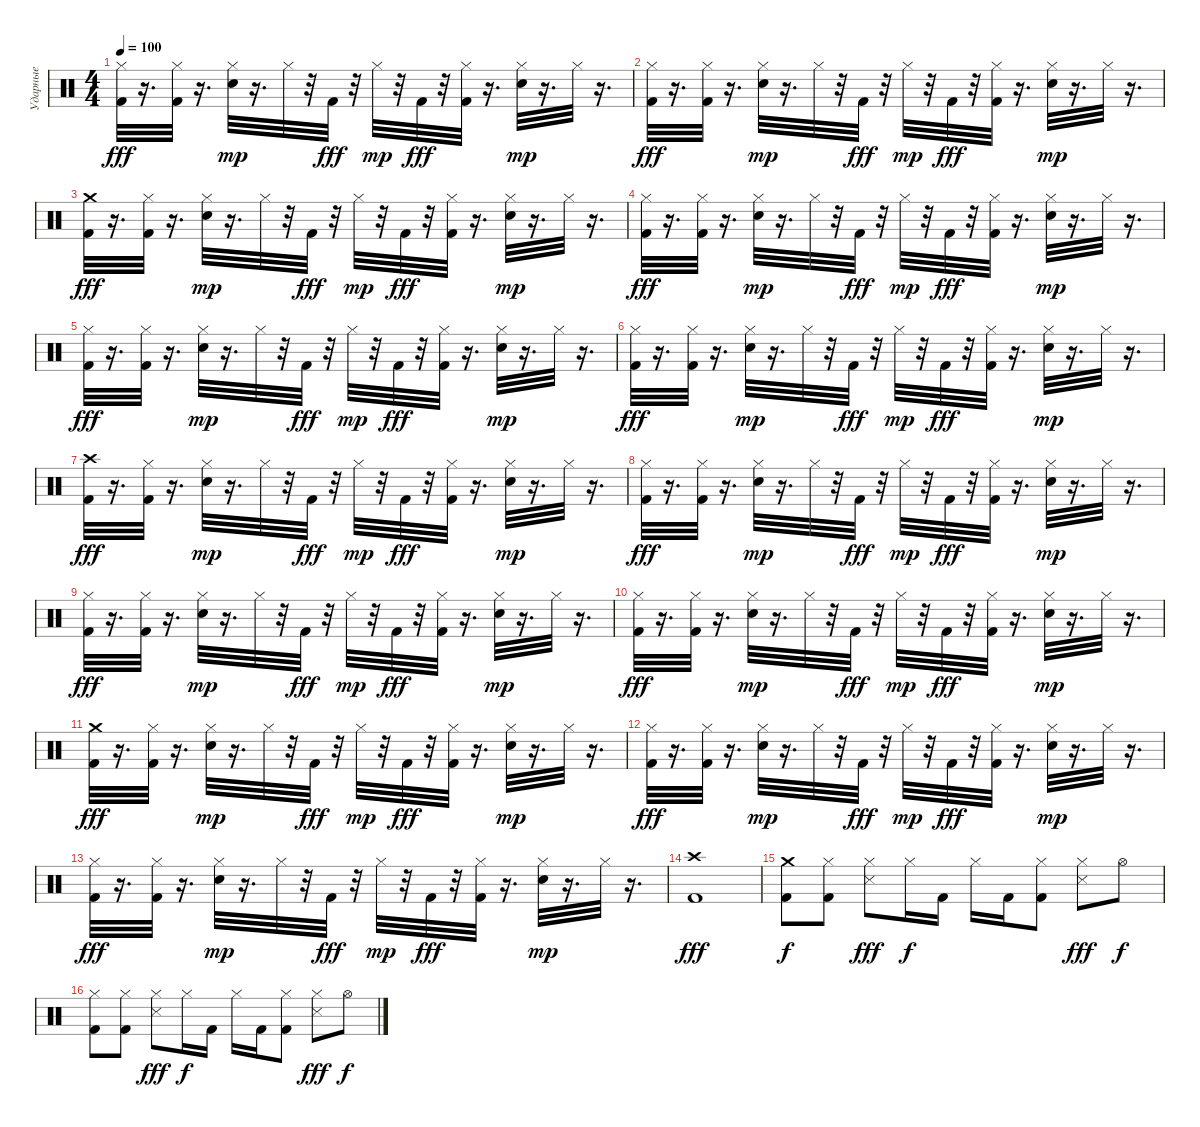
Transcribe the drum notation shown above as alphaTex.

\track ("Ударные" "Ударные") {instrument percussion}
\staff {score}
\articulation defaults
\ts (4 4)
\tempo 100
\clef neutral
\ks c
("Hi-Hat (closed)" "Kick (hit) 2").32{dy fff} r.16{d} ("Hi-Hat (closed)" "Kick (hit) 2").32 r.16{d} ("Hi-Hat (closed)" "Electric Snare (hit)").32{dy mp} r.16{d} "Hi-Hat (closed)".32 r.32 "Kick (hit) 2".32{dy fff} r.32 "Hi-Hat (closed)".32{dy mp} r.32 "Kick (hit) 2".32{dy fff} r.32 ("Hi-Hat (closed)" "Kick (hit) 2").32 r.16{d} ("Hi-Hat (closed)" "Electric Snare (hit)").32{dy mp} r.16{d} "Hi-Hat (closed)".32 r.16{d} |
("Hi-Hat (closed)" "Kick (hit) 2").32{dy fff} r.16{d} ("Hi-Hat (closed)" "Kick (hit) 2").32 r.16{d} ("Hi-Hat (closed)" "Electric Snare (hit)").32{dy mp} r.16{d} "Hi-Hat (closed)".32 r.32 "Kick (hit) 2".32{dy fff} r.32 "Hi-Hat (closed)".32{dy mp} r.32 "Kick (hit) 2".32{dy fff} r.32 ("Hi-Hat (closed)" "Kick (hit) 2").32 r.16{d} ("Hi-Hat (closed)" "Electric Snare (hit)").32{dy mp} r.16{d} "Hi-Hat (closed)".32 r.16{d} |
("Crash medium (hit)" "Kick (hit) 2").32{dy fff} r.16{d} ("Hi-Hat (closed)" "Kick (hit) 2").32 r.16{d} ("Hi-Hat (closed)" "Electric Snare (hit)").32{dy mp} r.16{d} "Hi-Hat (closed)".32 r.32 "Kick (hit) 2".32{dy fff} r.32 "Hi-Hat (closed)".32{dy mp} r.32 "Kick (hit) 2".32{dy fff} r.32 ("Hi-Hat (closed)" "Kick (hit) 2").32 r.16{d} ("Hi-Hat (closed)" "Electric Snare (hit)").32{dy mp} r.16{d} "Hi-Hat (closed)".32 r.16{d} |
("Hi-Hat (closed)" "Kick (hit) 2").32{dy fff} r.16{d} ("Hi-Hat (closed)" "Kick (hit) 2").32 r.16{d} ("Hi-Hat (closed)" "Electric Snare (hit)").32{dy mp} r.16{d} "Hi-Hat (closed)".32 r.32 "Kick (hit) 2".32{dy fff} r.32 "Hi-Hat (closed)".32{dy mp} r.32 "Kick (hit) 2".32{dy fff} r.32 ("Hi-Hat (closed)" "Kick (hit) 2").32 r.16{d} ("Hi-Hat (closed)" "Electric Snare (hit)").32{dy mp} r.16{d} "Hi-Hat (closed)".32 r.16{d} |
("Hi-Hat (closed)" "Kick (hit) 2").32{dy fff} r.16{d} ("Hi-Hat (closed)" "Kick (hit) 2").32 r.16{d} ("Hi-Hat (closed)" "Electric Snare (hit)").32{dy mp} r.16{d} "Hi-Hat (closed)".32 r.32 "Kick (hit) 2".32{dy fff} r.32 "Hi-Hat (closed)".32{dy mp} r.32 "Kick (hit) 2".32{dy fff} r.32 ("Hi-Hat (closed)" "Kick (hit) 2").32 r.16{d} ("Hi-Hat (closed)" "Electric Snare (hit)").32{dy mp} r.16{d} "Hi-Hat (closed)".32 r.16{d} |
("Hi-Hat (closed)" "Kick (hit) 2").32{dy fff} r.16{d} ("Hi-Hat (closed)" "Kick (hit) 2").32 r.16{d} ("Hi-Hat (closed)" "Electric Snare (hit)").32{dy mp} r.16{d} "Hi-Hat (closed)".32 r.32 "Kick (hit) 2".32{dy fff} r.32 "Hi-Hat (closed)".32{dy mp} r.32 "Kick (hit) 2".32{dy fff} r.32 ("Hi-Hat (closed)" "Kick (hit) 2").32 r.16{d} ("Hi-Hat (closed)" "Electric Snare (hit)").32{dy mp} r.16{d} "Hi-Hat (closed)".32 r.16{d} |
("Crash high (hit)" "Kick (hit) 2").32{dy fff} r.16{d} ("Hi-Hat (closed)" "Kick (hit) 2").32 r.16{d} ("Hi-Hat (closed)" "Electric Snare (hit)").32{dy mp} r.16{d} "Hi-Hat (closed)".32 r.32 "Kick (hit) 2".32{dy fff} r.32 "Hi-Hat (closed)".32{dy mp} r.32 "Kick (hit) 2".32{dy fff} r.32 ("Hi-Hat (closed)" "Kick (hit) 2").32 r.16{d} ("Hi-Hat (closed)" "Electric Snare (hit)").32{dy mp} r.16{d} "Hi-Hat (closed)".32 r.16{d} |
("Hi-Hat (closed)" "Kick (hit) 2").32{dy fff} r.16{d} ("Hi-Hat (closed)" "Kick (hit) 2").32 r.16{d} ("Hi-Hat (closed)" "Electric Snare (hit)").32{dy mp} r.16{d} "Hi-Hat (closed)".32 r.32 "Kick (hit) 2".32{dy fff} r.32 "Hi-Hat (closed)".32{dy mp} r.32 "Kick (hit) 2".32{dy fff} r.32 ("Hi-Hat (closed)" "Kick (hit) 2").32 r.16{d} ("Hi-Hat (closed)" "Electric Snare (hit)").32{dy mp} r.16{d} "Hi-Hat (closed)".32 r.16{d} |
("Hi-Hat (closed)" "Kick (hit) 2").32{dy fff} r.16{d} ("Hi-Hat (closed)" "Kick (hit) 2").32 r.16{d} ("Hi-Hat (closed)" "Electric Snare (hit)").32{dy mp} r.16{d} "Hi-Hat (closed)".32 r.32 "Kick (hit) 2".32{dy fff} r.32 "Hi-Hat (closed)".32{dy mp} r.32 "Kick (hit) 2".32{dy fff} r.32 ("Hi-Hat (closed)" "Kick (hit) 2").32 r.16{d} ("Hi-Hat (closed)" "Electric Snare (hit)").32{dy mp} r.16{d} "Hi-Hat (closed)".32 r.16{d} |
("Hi-Hat (closed)" "Kick (hit) 2").32{dy fff} r.16{d} ("Hi-Hat (closed)" "Kick (hit) 2").32 r.16{d} ("Hi-Hat (closed)" "Electric Snare (hit)").32{dy mp} r.16{d} "Hi-Hat (closed)".32 r.32 "Kick (hit) 2".32{dy fff} r.32 "Hi-Hat (closed)".32{dy mp} r.32 "Kick (hit) 2".32{dy fff} r.32 ("Hi-Hat (closed)" "Kick (hit) 2").32 r.16{d} ("Hi-Hat (closed)" "Electric Snare (hit)").32{dy mp} r.16{d} "Hi-Hat (closed)".32 r.16{d} |
("Crash medium (hit)" "Kick (hit) 2").32{dy fff} r.16{d} ("Hi-Hat (closed)" "Kick (hit) 2").32 r.16{d} ("Hi-Hat (closed)" "Electric Snare (hit)").32{dy mp} r.16{d} "Hi-Hat (closed)".32 r.32 "Kick (hit) 2".32{dy fff} r.32 "Hi-Hat (closed)".32{dy mp} r.32 "Kick (hit) 2".32{dy fff} r.32 ("Hi-Hat (closed)" "Kick (hit) 2").32 r.16{d} ("Hi-Hat (closed)" "Electric Snare (hit)").32{dy mp} r.16{d} "Hi-Hat (closed)".32 r.16{d} |
("Hi-Hat (closed)" "Kick (hit) 2").32{dy fff} r.16{d} ("Hi-Hat (closed)" "Kick (hit) 2").32 r.16{d} ("Hi-Hat (closed)" "Electric Snare (hit)").32{dy mp} r.16{d} "Hi-Hat (closed)".32 r.32 "Kick (hit) 2".32{dy fff} r.32 "Hi-Hat (closed)".32{dy mp} r.32 "Kick (hit) 2".32{dy fff} r.32 ("Hi-Hat (closed)" "Kick (hit) 2").32 r.16{d} ("Hi-Hat (closed)" "Electric Snare (hit)").32{dy mp} r.16{d} "Hi-Hat (closed)".32 r.16{d} |
("Hi-Hat (closed)" "Kick (hit) 2").32{dy fff} r.16{d} ("Hi-Hat (closed)" "Kick (hit) 2").32 r.16{d} ("Hi-Hat (closed)" "Electric Snare (hit)").32{dy mp} r.16{d} "Hi-Hat (closed)".32 r.32 "Kick (hit) 2".32{dy fff} r.32 "Hi-Hat (closed)".32{dy mp} r.32 "Kick (hit) 2".32{dy fff} r.32 ("Hi-Hat (closed)" "Kick (hit) 2").32 r.16{d} ("Hi-Hat (closed)" "Electric Snare (hit)").32{dy mp} r.16{d} "Hi-Hat (closed)".32 r.16{d} |
("Crash high (hit)" "Kick (hit) 2").1{dy fff} |
("Crash medium (hit)" "Kick (hit) 2").8{dy f} ("Hi-Hat (closed)" "Kick (hit) 2").8 ("Hi-Hat (closed)" "Snare (side stick) 3").8{dy fff} "Hi-Hat (closed)".16{dy f} "Kick (hit) 2".16 "Hi-Hat (closed)".16 "Kick (hit) 2".16 ("Hi-Hat (closed)" "Kick (hit) 2").8 ("Hi-Hat (closed)" "Snare (side stick) 3").8{dy fff} "Hi-Hat (open)".8{dy f} |
("Hi-Hat (closed)" "Kick (hit) 2").8 ("Hi-Hat (closed)" "Kick (hit) 2").8 ("Hi-Hat (closed)" "Snare (side stick) 3").8{dy fff} "Hi-Hat (closed)".16{dy f} "Kick (hit) 2".16 "Hi-Hat (closed)".16 "Kick (hit) 2".16 ("Hi-Hat (closed)" "Kick (hit) 2").8 ("Hi-Hat (closed)" "Snare (side stick) 3").8{dy fff} "Hi-Hat (open)".8{dy f}
